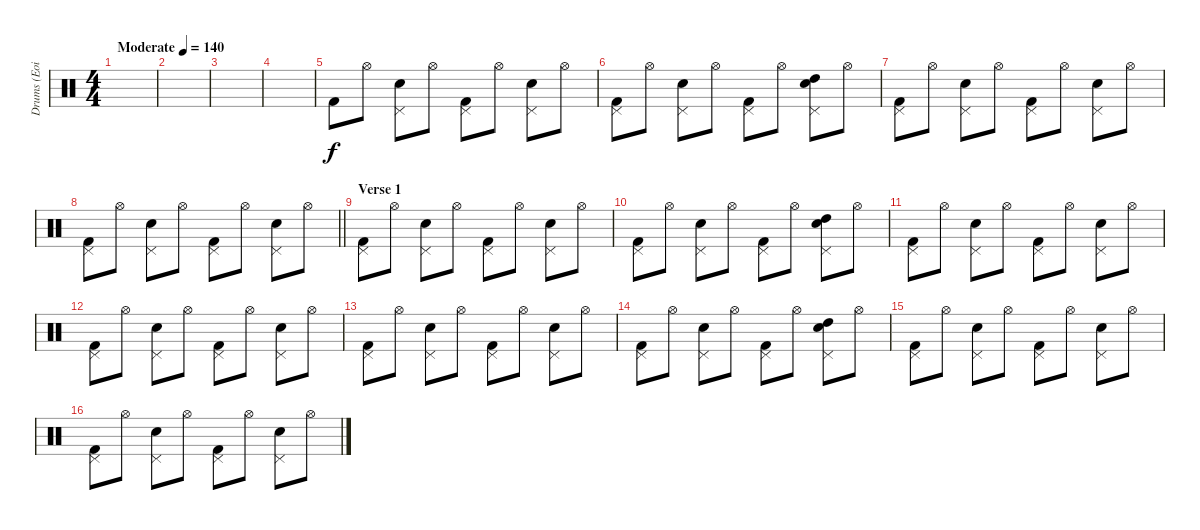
\track ("Drums (Eoin)" "Drums (Eoi") {instrument percussion}
\staff {score}
\articulation defaults
\ts (4 4)
\tempo (140 "Moderate")
\clef neutral
\ks c
|
|
|
|
"Kick (hit) 2".8 "Hi-Hat (open)".8 ("Pedal Hi-Hat (hit)" "Electric Snare (hit)").8 "Hi-Hat (open)".8 ("Pedal Hi-Hat (hit)" "Kick (hit) 2").8 "Hi-Hat (open)".8 ("Pedal Hi-Hat (hit)" "Electric Snare (hit)").8 "Hi-Hat (open)".8 |
("Pedal Hi-Hat (hit)" "Kick (hit) 2").8 "Hi-Hat (open)".8 ("Pedal Hi-Hat (hit)" "Electric Snare (hit)").8 "Hi-Hat (open)".8 ("Pedal Hi-Hat (hit)" "Kick (hit) 2").8 "Hi-Hat (open)".8 ("Pedal Hi-Hat (hit)" "Electric Snare (hit)" "High Tom (hit)").8 "Hi-Hat (open)".8 |
("Pedal Hi-Hat (hit)" "Kick (hit) 2").8 "Hi-Hat (open)".8 ("Pedal Hi-Hat (hit)" "Electric Snare (hit)").8 "Hi-Hat (open)".8 ("Pedal Hi-Hat (hit)" "Kick (hit) 2").8 "Hi-Hat (open)".8 ("Pedal Hi-Hat (hit)" "Electric Snare (hit)").8 "Hi-Hat (open)".8 |
\barLineRight lightlight
("Pedal Hi-Hat (hit)" "Kick (hit) 2").8 "Hi-Hat (open)".8 ("Pedal Hi-Hat (hit)" "Electric Snare (hit)").8 "Hi-Hat (open)".8 ("Pedal Hi-Hat (hit)" "Kick (hit) 2").8 "Hi-Hat (open)".8 ("Pedal Hi-Hat (hit)" "Electric Snare (hit)").8 "Hi-Hat (open)".8 |
\section ("" "Verse 1")
("Pedal Hi-Hat (hit)" "Kick (hit) 2").8 "Hi-Hat (open)".8 ("Pedal Hi-Hat (hit)" "Electric Snare (hit)").8 "Hi-Hat (open)".8 ("Pedal Hi-Hat (hit)" "Kick (hit) 2").8 "Hi-Hat (open)".8 ("Pedal Hi-Hat (hit)" "Electric Snare (hit)").8 "Hi-Hat (open)".8 |
("Pedal Hi-Hat (hit)" "Kick (hit) 2").8 "Hi-Hat (open)".8 ("Pedal Hi-Hat (hit)" "Electric Snare (hit)").8 "Hi-Hat (open)".8 ("Pedal Hi-Hat (hit)" "Kick (hit) 2").8 "Hi-Hat (open)".8 ("Pedal Hi-Hat (hit)" "Electric Snare (hit)" "High Tom (hit)").8 "Hi-Hat (open)".8 |
("Pedal Hi-Hat (hit)" "Kick (hit) 2").8 "Hi-Hat (open)".8 ("Pedal Hi-Hat (hit)" "Electric Snare (hit)").8 "Hi-Hat (open)".8 ("Pedal Hi-Hat (hit)" "Kick (hit) 2").8 "Hi-Hat (open)".8 ("Pedal Hi-Hat (hit)" "Electric Snare (hit)").8 "Hi-Hat (open)".8 |
("Pedal Hi-Hat (hit)" "Kick (hit) 2").8 "Hi-Hat (open)".8 ("Pedal Hi-Hat (hit)" "Electric Snare (hit)").8 "Hi-Hat (open)".8 ("Pedal Hi-Hat (hit)" "Kick (hit) 2").8 "Hi-Hat (open)".8 ("Pedal Hi-Hat (hit)" "Electric Snare (hit)").8 "Hi-Hat (open)".8 |
("Pedal Hi-Hat (hit)" "Kick (hit) 2").8 "Hi-Hat (open)".8 ("Pedal Hi-Hat (hit)" "Electric Snare (hit)").8 "Hi-Hat (open)".8 ("Pedal Hi-Hat (hit)" "Kick (hit) 2").8 "Hi-Hat (open)".8 ("Pedal Hi-Hat (hit)" "Electric Snare (hit)").8 "Hi-Hat (open)".8 |
("Pedal Hi-Hat (hit)" "Kick (hit) 2").8 "Hi-Hat (open)".8 ("Pedal Hi-Hat (hit)" "Electric Snare (hit)").8 "Hi-Hat (open)".8 ("Pedal Hi-Hat (hit)" "Kick (hit) 2").8 "Hi-Hat (open)".8 ("Pedal Hi-Hat (hit)" "Electric Snare (hit)" "High Tom (hit)").8 "Hi-Hat (open)".8 |
("Pedal Hi-Hat (hit)" "Kick (hit) 2").8 "Hi-Hat (open)".8 ("Pedal Hi-Hat (hit)" "Electric Snare (hit)").8 "Hi-Hat (open)".8 ("Pedal Hi-Hat (hit)" "Kick (hit) 2").8 "Hi-Hat (open)".8 ("Pedal Hi-Hat (hit)" "Electric Snare (hit)").8 "Hi-Hat (open)".8 |
("Pedal Hi-Hat (hit)" "Kick (hit) 2").8 "Hi-Hat (open)".8 ("Pedal Hi-Hat (hit)" "Electric Snare (hit)").8 "Hi-Hat (open)".8 ("Pedal Hi-Hat (hit)" "Kick (hit) 2").8 "Hi-Hat (open)".8 ("Pedal Hi-Hat (hit)" "Electric Snare (hit)").8 "Hi-Hat (open)".8
